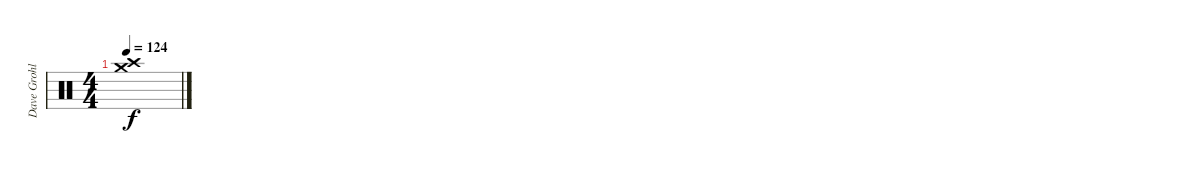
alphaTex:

\track ("Dave Grohl" "Dave Grohl") {instrument percussion}
\staff {score}
\articulation defaults
\ts (4 4)
\tempo 124
\clef neutral
\ks c
("Crash high (hit)" "Crash medium (hit)").1{dy f}
